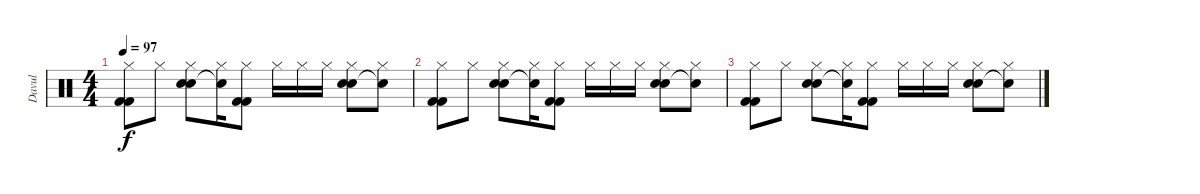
\track ("Davul" "Davul") {instrument percussion}
\staff {score}
\articulation defaults
\ts (4 4)
\tempo 97
\clef neutral
\ks c
("Hi-Hat (closed)" "Kick (hit) 2" "Kick (hit) 2").8{dy f} "Hi-Hat (closed)".8 ("Hi-Hat (closed)" "Snare (hit) 2" "Snare (hit) 2").8 ("Hi-Hat (closed)" "Snare (hit)"{t}).16 ("Hi-Hat (closed)" "Kick (hit) 2" "Kick (hit) 2").8 "Hi-Hat (closed)".16 "Hi-Hat (closed)".16 "Hi-Hat (closed)".16 ("Hi-Hat (closed)" "Snare (hit) 2" "Snare (hit) 2").8 ("Hi-Hat (closed)" "Snare (hit)"{t}).8 |
("Hi-Hat (closed)" "Kick (hit) 2" "Kick (hit) 2").8{volume 0} "Hi-Hat (closed)".8 ("Hi-Hat (closed)" "Snare (hit) 2" "Snare (hit) 2").8 ("Hi-Hat (closed)" "Snare (hit)"{t}).16 ("Hi-Hat (closed)" "Kick (hit) 2" "Kick (hit) 2").8 "Hi-Hat (closed)".16 "Hi-Hat (closed)".16 "Hi-Hat (closed)".16 ("Hi-Hat (closed)" "Snare (hit) 2" "Snare (hit) 2").8 ("Hi-Hat (closed)" "Snare (hit)"{t}).8 |
("Hi-Hat (closed)" "Kick (hit) 2" "Kick (hit) 2").8 "Hi-Hat (closed)".8 ("Hi-Hat (closed)" "Snare (hit) 2" "Snare (hit) 2").8 ("Hi-Hat (closed)" "Snare (hit)"{t}).16 ("Hi-Hat (closed)" "Kick (hit) 2" "Kick (hit) 2").8 "Hi-Hat (closed)".16 "Hi-Hat (closed)".16 "Hi-Hat (closed)".16 ("Hi-Hat (closed)" "Snare (hit) 2" "Snare (hit) 2").8 ("Hi-Hat (closed)" "Snare (hit)"{t}).8
